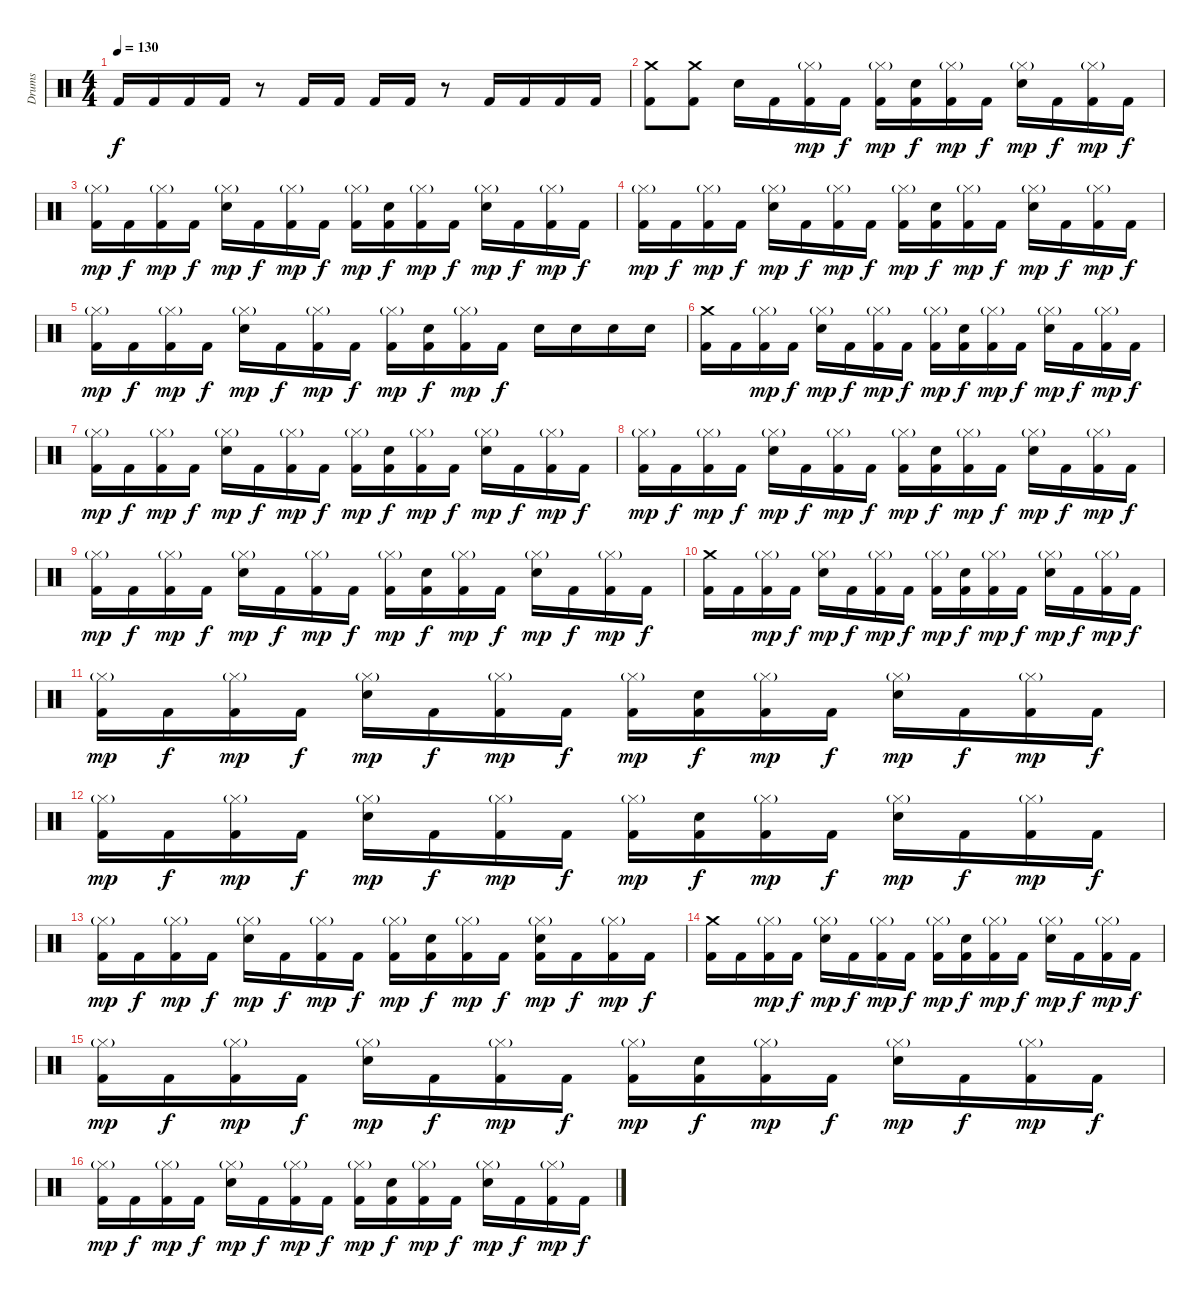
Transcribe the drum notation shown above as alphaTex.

\track ("Drums" "Drums") {instrument percussion}
\staff {score}
\articulation defaults
\ts (4 4)
\tempo 130
\clef neutral
\ks c "Kick (hit) 2".16{dy f} "Kick (hit) 2".16 "Kick (hit) 2".16 "Kick (hit) 2".16
r.8 "Kick (hit) 2".16 "Kick (hit) 2".16 "Kick (hit) 2".16 "Kick (hit) 2".16 r.8 "Kick (hit) 2".16 "Kick (hit) 2".16 "Kick (hit) 2".16 "Kick (hit) 2".16 |
("Crash medium (hit)" "Kick (hit) 2").8 ("Crash medium (hit)" "Kick (hit) 2").8 "Snare (hit) 2".16 "Kick (hit) 2".16 ("Hi-Hat (closed)"{g} "Kick (hit) 2").16{dy mp} "Kick (hit) 2".16{dy f} ("Hi-Hat (closed)"{g} "Kick (hit) 2").16{dy mp} ("Snare (hit) 2" "Kick (hit) 2").16{dy f} ("Hi-Hat (closed)"{g} "Kick (hit) 2").16{dy mp} "Kick (hit) 2".16{dy f} ("Snare (hit) 2" "Hi-Hat (closed)"{g}).16{dy mp} "Kick (hit) 2".16{dy f} ("Hi-Hat (closed)"{g} "Kick (hit) 2").16{dy mp} "Kick (hit) 2".16{dy f} |
("Hi-Hat (closed)"{g} "Kick (hit) 2").16{dy mp} "Kick (hit) 2".16{dy f} ("Hi-Hat (closed)"{g} "Kick (hit) 2").16{dy mp} "Kick (hit) 2".16{dy f} ("Snare (hit) 2" "Hi-Hat (closed)"{g}).16{dy mp} "Kick (hit) 2".16{dy f} ("Hi-Hat (closed)"{g} "Kick (hit) 2").16{dy mp} "Kick (hit) 2".16{dy f} ("Hi-Hat (closed)"{g} "Kick (hit) 2").16{dy mp} ("Snare (hit) 2" "Kick (hit) 2").16{dy f} ("Hi-Hat (closed)"{g} "Kick (hit) 2").16{dy mp} "Kick (hit) 2".16{dy f} ("Snare (hit) 2" "Hi-Hat (closed)"{g}).16{dy mp} "Kick (hit) 2".16{dy f} ("Hi-Hat (closed)"{g} "Kick (hit) 2").16{dy mp} "Kick (hit) 2".16{dy f} |
("Hi-Hat (closed)"{g} "Kick (hit) 2").16{dy mp} "Kick (hit) 2".16{dy f} ("Hi-Hat (closed)"{g} "Kick (hit) 2").16{dy mp} "Kick (hit) 2".16{dy f} ("Snare (hit) 2" "Hi-Hat (closed)"{g}).16{dy mp} "Kick (hit) 2".16{dy f} ("Hi-Hat (closed)"{g} "Kick (hit) 2").16{dy mp} "Kick (hit) 2".16{dy f} ("Hi-Hat (closed)"{g} "Kick (hit) 2").16{dy mp} ("Snare (hit) 2" "Kick (hit) 2").16{dy f} ("Hi-Hat (closed)"{g} "Kick (hit) 2").16{dy mp} "Kick (hit) 2".16{dy f} ("Snare (hit) 2" "Hi-Hat (closed)"{g}).16{dy mp} "Kick (hit) 2".16{dy f} ("Hi-Hat (closed)"{g} "Kick (hit) 2").16{dy mp} "Kick (hit) 2".16{dy f} |
("Hi-Hat (closed)"{g} "Kick (hit) 2").16{dy mp} "Kick (hit) 2".16{dy f} ("Hi-Hat (closed)"{g} "Kick (hit) 2").16{dy mp} "Kick (hit) 2".16{dy f} ("Snare (hit) 2" "Hi-Hat (closed)"{g}).16{dy mp} "Kick (hit) 2".16{dy f} ("Hi-Hat (closed)"{g} "Kick (hit) 2").16{dy mp} "Kick (hit) 2".16{dy f} ("Hi-Hat (closed)"{g} "Kick (hit) 2").16{dy mp} ("Snare (hit) 2" "Kick (hit) 2").16{dy f} ("Hi-Hat (closed)"{g} "Kick (hit) 2").16{dy mp} "Kick (hit) 2".16{dy f} "Snare (hit) 2".16 "Snare (hit) 2".16 "Snare (hit) 2".16 "Snare (hit) 2".16 |
("Crash medium (hit)" "Kick (hit) 2").16 "Kick (hit) 2".16 ("Hi-Hat (closed)"{g} "Kick (hit) 2").16{dy mp} "Kick (hit) 2".16{dy f} ("Snare (hit) 2" "Hi-Hat (closed)"{g}).16{dy mp} "Kick (hit) 2".16{dy f} ("Hi-Hat (closed)"{g} "Kick (hit) 2").16{dy mp} "Kick (hit) 2".16{dy f} ("Hi-Hat (closed)"{g} "Kick (hit) 2").16{dy mp} ("Snare (hit) 2" "Kick (hit) 2").16{dy f} ("Hi-Hat (closed)"{g} "Kick (hit) 2").16{dy mp} "Kick (hit) 2".16{dy f} ("Snare (hit) 2" "Hi-Hat (closed)"{g}).16{dy mp} "Kick (hit) 2".16{dy f} ("Hi-Hat (closed)"{g} "Kick (hit) 2").16{dy mp} "Kick (hit) 2".16{dy f} |
("Hi-Hat (closed)"{g} "Kick (hit) 2").16{dy mp} "Kick (hit) 2".16{dy f} ("Hi-Hat (closed)"{g} "Kick (hit) 2").16{dy mp} "Kick (hit) 2".16{dy f} ("Snare (hit) 2" "Hi-Hat (closed)"{g}).16{dy mp} "Kick (hit) 2".16{dy f} ("Hi-Hat (closed)"{g} "Kick (hit) 2").16{dy mp} "Kick (hit) 2".16{dy f} ("Hi-Hat (closed)"{g} "Kick (hit) 2").16{dy mp} ("Snare (hit) 2" "Kick (hit) 2").16{dy f} ("Hi-Hat (closed)"{g} "Kick (hit) 2").16{dy mp} "Kick (hit) 2".16{dy f} ("Snare (hit) 2" "Hi-Hat (closed)"{g}).16{dy mp} "Kick (hit) 2".16{dy f} ("Hi-Hat (closed)"{g} "Kick (hit) 2").16{dy mp} "Kick (hit) 2".16{dy f} |
("Hi-Hat (closed)"{g} "Kick (hit) 2").16{dy mp} "Kick (hit) 2".16{dy f} ("Hi-Hat (closed)"{g} "Kick (hit) 2").16{dy mp} "Kick (hit) 2".16{dy f} ("Snare (hit) 2" "Hi-Hat (closed)"{g}).16{dy mp} "Kick (hit) 2".16{dy f} ("Hi-Hat (closed)"{g} "Kick (hit) 2").16{dy mp} "Kick (hit) 2".16{dy f} ("Hi-Hat (closed)"{g} "Kick (hit) 2").16{dy mp} ("Snare (hit) 2" "Kick (hit) 2").16{dy f} ("Hi-Hat (closed)"{g} "Kick (hit) 2").16{dy mp} "Kick (hit) 2".16{dy f} ("Snare (hit) 2" "Hi-Hat (closed)"{g}).16{dy mp} "Kick (hit) 2".16{dy f} ("Hi-Hat (closed)"{g} "Kick (hit) 2").16{dy mp} "Kick (hit) 2".16{dy f} |
("Hi-Hat (closed)"{g} "Kick (hit) 2").16{dy mp} "Kick (hit) 2".16{dy f} ("Hi-Hat (closed)"{g} "Kick (hit) 2").16{dy mp} "Kick (hit) 2".16{dy f} ("Snare (hit) 2" "Hi-Hat (closed)"{g}).16{dy mp} "Kick (hit) 2".16{dy f} ("Hi-Hat (closed)"{g} "Kick (hit) 2").16{dy mp} "Kick (hit) 2".16{dy f} ("Hi-Hat (closed)"{g} "Kick (hit) 2").16{dy mp} ("Snare (hit) 2" "Kick (hit) 2").16{dy f} ("Hi-Hat (closed)"{g} "Kick (hit) 2").16{dy mp} "Kick (hit) 2".16{dy f} ("Snare (hit) 2" "Hi-Hat (closed)"{g}).16{dy mp} "Kick (hit) 2".16{dy f} ("Hi-Hat (closed)"{g} "Kick (hit) 2").16{dy mp} "Kick (hit) 2".16{dy f} |
("Crash medium (hit)" "Kick (hit) 2").16 "Kick (hit) 2".16 ("Hi-Hat (closed)"{g} "Kick (hit) 2").16{dy mp} "Kick (hit) 2".16{dy f} ("Snare (hit) 2" "Hi-Hat (closed)"{g}).16{dy mp} "Kick (hit) 2".16{dy f} ("Hi-Hat (closed)"{g} "Kick (hit) 2").16{dy mp} "Kick (hit) 2".16{dy f} ("Hi-Hat (closed)"{g} "Kick (hit) 2").16{dy mp} ("Snare (hit) 2" "Kick (hit) 2").16{dy f} ("Hi-Hat (closed)"{g} "Kick (hit) 2").16{dy mp} "Kick (hit) 2".16{dy f} ("Snare (hit) 2" "Hi-Hat (closed)"{g}).16{dy mp} "Kick (hit) 2".16{dy f} ("Hi-Hat (closed)"{g} "Kick (hit) 2").16{dy mp} "Kick (hit) 2".16{dy f} |
("Hi-Hat (closed)"{g} "Kick (hit) 2").16{dy mp} "Kick (hit) 2".16{dy f} ("Hi-Hat (closed)"{g} "Kick (hit) 2").16{dy mp} "Kick (hit) 2".16{dy f} ("Snare (hit) 2" "Hi-Hat (closed)"{g}).16{dy mp} "Kick (hit) 2".16{dy f} ("Hi-Hat (closed)"{g} "Kick (hit) 2").16{dy mp} "Kick (hit) 2".16{dy f} ("Hi-Hat (closed)"{g} "Kick (hit) 2").16{dy mp} ("Snare (hit) 2" "Kick (hit) 2").16{dy f} ("Hi-Hat (closed)"{g} "Kick (hit) 2").16{dy mp} "Kick (hit) 2".16{dy f} ("Snare (hit) 2" "Hi-Hat (closed)"{g}).16{dy mp} "Kick (hit) 2".16{dy f} ("Hi-Hat (closed)"{g} "Kick (hit) 2").16{dy mp} "Kick (hit) 2".16{dy f} |
("Hi-Hat (closed)"{g} "Kick (hit) 2").16{dy mp} "Kick (hit) 2".16{dy f} ("Hi-Hat (closed)"{g} "Kick (hit) 2").16{dy mp} "Kick (hit) 2".16{dy f} ("Snare (hit) 2" "Hi-Hat (closed)"{g}).16{dy mp} "Kick (hit) 2".16{dy f} ("Hi-Hat (closed)"{g} "Kick (hit) 2").16{dy mp} "Kick (hit) 2".16{dy f} ("Hi-Hat (closed)"{g} "Kick (hit) 2").16{dy mp} ("Snare (hit) 2" "Kick (hit) 2").16{dy f} ("Hi-Hat (closed)"{g} "Kick (hit) 2").16{dy mp} "Kick (hit) 2".16{dy f} ("Snare (hit) 2" "Hi-Hat (closed)"{g}).16{dy mp} "Kick (hit) 2".16{dy f} ("Hi-Hat (closed)"{g} "Kick (hit) 2").16{dy mp} "Kick (hit) 2".16{dy f} |
("Hi-Hat (closed)"{g} "Kick (hit) 2").16{dy mp} "Kick (hit) 2".16{dy f} ("Hi-Hat (closed)"{g} "Kick (hit) 2").16{dy mp} "Kick (hit) 2".16{dy f} ("Snare (hit) 2" "Hi-Hat (closed)"{g}).16{dy mp} "Kick (hit) 2".16{dy f} ("Hi-Hat (closed)"{g} "Kick (hit) 2").16{dy mp} "Kick (hit) 2".16{dy f} ("Hi-Hat (closed)"{g} "Kick (hit) 2").16{dy mp} ("Snare (hit) 2" "Kick (hit) 2").16{dy f} ("Hi-Hat (closed)"{g} "Kick (hit) 2").16{dy mp} "Kick (hit) 2".16{dy f} ("Snare (hit) 2" "Hi-Hat (closed)"{g} "Kick (hit) 2").16{dy mp} "Kick (hit) 2".16{dy f} ("Hi-Hat (closed)"{g} "Kick (hit) 2").16{dy mp} "Kick (hit) 2".16{dy f} |
("Crash medium (hit)" "Kick (hit) 2").16 "Kick (hit) 2".16 ("Hi-Hat (closed)"{g} "Kick (hit) 2").16{dy mp} "Kick (hit) 2".16{dy f} ("Snare (hit) 2" "Hi-Hat (closed)"{g}).16{dy mp} "Kick (hit) 2".16{dy f} ("Hi-Hat (closed)"{g} "Kick (hit) 2").16{dy mp} "Kick (hit) 2".16{dy f} ("Hi-Hat (closed)"{g} "Kick (hit) 2").16{dy mp} ("Snare (hit) 2" "Kick (hit) 2").16{dy f} ("Hi-Hat (closed)"{g} "Kick (hit) 2").16{dy mp} "Kick (hit) 2".16{dy f} ("Snare (hit) 2" "Hi-Hat (closed)"{g}).16{dy mp} "Kick (hit) 2".16{dy f} ("Hi-Hat (closed)"{g} "Kick (hit) 2").16{dy mp} "Kick (hit) 2".16{dy f} |
("Hi-Hat (closed)"{g} "Kick (hit) 2").16{dy mp} "Kick (hit) 2".16{dy f} ("Hi-Hat (closed)"{g} "Kick (hit) 2").16{dy mp} "Kick (hit) 2".16{dy f} ("Snare (hit) 2" "Hi-Hat (closed)"{g}).16{dy mp} "Kick (hit) 2".16{dy f} ("Hi-Hat (closed)"{g} "Kick (hit) 2").16{dy mp} "Kick (hit) 2".16{dy f} ("Hi-Hat (closed)"{g} "Kick (hit) 2").16{dy mp} ("Snare (hit) 2" "Kick (hit) 2").16{dy f} ("Hi-Hat (closed)"{g} "Kick (hit) 2").16{dy mp} "Kick (hit) 2".16{dy f} ("Snare (hit) 2" "Hi-Hat (closed)"{g}).16{dy mp} "Kick (hit) 2".16{dy f} ("Hi-Hat (closed)"{g} "Kick (hit) 2").16{dy mp} "Kick (hit) 2".16{dy f} |
("Hi-Hat (closed)"{g} "Kick (hit) 2").16{dy mp} "Kick (hit) 2".16{dy f} ("Hi-Hat (closed)"{g} "Kick (hit) 2").16{dy mp} "Kick (hit) 2".16{dy f} ("Snare (hit) 2" "Hi-Hat (closed)"{g}).16{dy mp} "Kick (hit) 2".16{dy f} ("Hi-Hat (closed)"{g} "Kick (hit) 2").16{dy mp} "Kick (hit) 2".16{dy f} ("Hi-Hat (closed)"{g} "Kick (hit) 2").16{dy mp} ("Snare (hit) 2" "Kick (hit) 2").16{dy f} ("Hi-Hat (closed)"{g} "Kick (hit) 2").16{dy mp} "Kick (hit) 2".16{dy f} ("Snare (hit) 2" "Hi-Hat (closed)"{g}).16{dy mp} "Kick (hit) 2".16{dy f} ("Hi-Hat (closed)"{g} "Kick (hit) 2").16{dy mp} "Kick (hit) 2".16{dy f}
